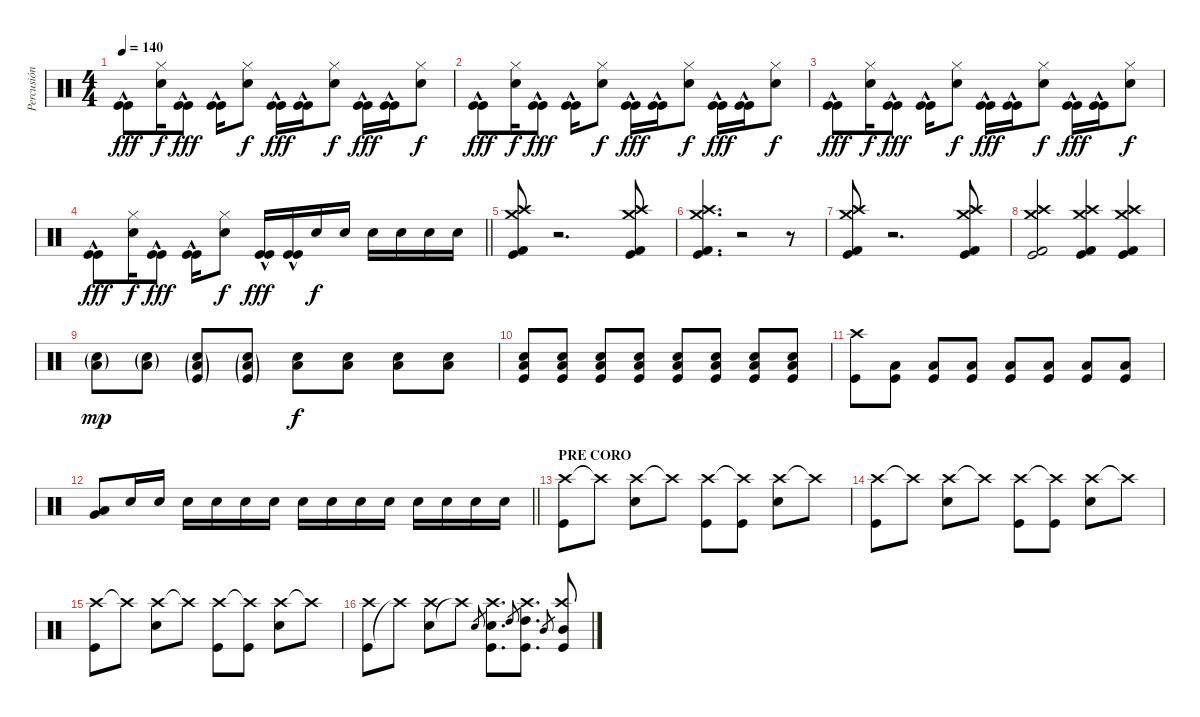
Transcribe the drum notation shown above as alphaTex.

\track ("Percusión" "Percusión") {instrument percussion}
\staff {score}
\articulation defaults
\ts (4 4)
\tempo 140
\clef neutral
\ks c
("Kick (hit)"{hac} "Kick (hit)").8{dy fff} ("Hi-Hat (closed)" "Snare (hit) 2").16{dy f} ("Kick (hit)"{hac} "Kick (hit)").8{dy fff} ("Kick (hit)" "Kick (hit)"{hac}).16 ("Hi-Hat (closed)" "Snare (hit) 2").8{dy f} ("Kick (hit)"{hac} "Kick (hit)").16{dy fff} ("Kick (hit)"{hac} "Kick (hit)").16 ("Hi-Hat (closed)" "Snare (hit) 2").8{dy f} ("Kick (hit)"{hac} "Kick (hit)").16{dy fff} ("Kick (hit)"{hac} "Kick (hit)").16 ("Hi-Hat (closed)" "Snare (hit) 2").8{dy f} |
("Kick (hit)"{hac} "Kick (hit)").8{dy fff} ("Hi-Hat (closed)" "Snare (hit) 2").16{dy f} ("Kick (hit)"{hac} "Kick (hit)").8{dy fff} ("Kick (hit)" "Kick (hit)"{hac}).16 ("Hi-Hat (closed)" "Snare (hit) 2").8{dy f} ("Kick (hit)"{hac} "Kick (hit)").16{dy fff} ("Kick (hit)"{hac} "Kick (hit)").16 ("Hi-Hat (closed)" "Snare (hit) 2").8{dy f} ("Kick (hit)"{hac} "Kick (hit)").16{dy fff} ("Kick (hit)"{hac} "Kick (hit)").16 ("Hi-Hat (closed)" "Snare (hit) 2").8{dy f} |
("Kick (hit)"{hac} "Kick (hit)").8{dy fff} ("Hi-Hat (closed)" "Snare (hit) 2").16{dy f} ("Kick (hit)"{hac} "Kick (hit)").8{dy fff} ("Kick (hit)" "Kick (hit)"{hac}).16 ("Hi-Hat (closed)" "Snare (hit) 2").8{dy f} ("Kick (hit)"{hac} "Kick (hit)").16{dy fff} ("Kick (hit)"{hac} "Kick (hit)").16 ("Hi-Hat (closed)" "Snare (hit) 2").8{dy f} ("Kick (hit)"{hac} "Kick (hit)").16{dy fff} ("Kick (hit)"{hac} "Kick (hit)").16 ("Hi-Hat (closed)" "Snare (hit) 2").8{dy f} |
\barLineRight lightlight
("Kick (hit)"{hac} "Kick (hit)").8{dy fff} ("Hi-Hat (closed)" "Snare (hit) 2").16{dy f} ("Kick (hit)"{hac} "Kick (hit)").8{dy fff} ("Kick (hit)" "Kick (hit)"{hac}).16 ("Hi-Hat (closed)" "Snare (hit) 2").8{dy f} ("Kick (hit)"{hac} "Kick (hit)").16{dy fff} ("Kick (hit)"{hac} "Kick (hit)").16 "Snare (hit) 2".16{dy f} "Snare (hit) 2".16 "Snare (hit) 2".16 "Snare (hit) 2".16 "Snare (hit) 2".16 "Snare (hit) 2".16 |
("Crash medium (hit)" "Crash high (hit)" "Kick (hit)" "Kick (hit) 2").8 r.2{d} ("Crash medium (hit)" "Crash high (hit)" "Kick (hit)" "Kick (hit) 2").8 |
("Crash medium (hit)" "Crash high (hit)" "Kick (hit)" "Kick (hit) 2").4{d} r.2 r.8 |
("Crash medium (hit)" "Crash high (hit)" "Kick (hit)" "Kick (hit) 2").8 r.2{d} ("Crash medium (hit)" "Crash high (hit)" "Kick (hit)" "Kick (hit) 2").8 |
("Crash medium (hit)" "Crash high (hit)" "Kick (hit)" "Kick (hit) 2").2 ("Crash medium (hit)" "Crash high (hit)" "Kick (hit)" "Kick (hit) 2").4 ("Crash medium (hit)" "Crash high (hit)" "Kick (hit)" "Kick (hit) 2").4 |
("Low Floor Tom (hit)"{g} "Snare (hit) 2"{g}).8{dy mp} ("Low Floor Tom (hit)"{g} "Snare (hit) 2"{g}).8 ("Low Floor Tom (hit)"{g} "Kick (hit)"{g} "Snare (hit) 2"{g}).8 ("Low Floor Tom (hit)"{g} "Kick (hit)"{g} "Snare (hit) 2"{g}).8 ("Low Floor Tom (hit)" "Snare (hit) 2").8{dy f} ("Snare (hit) 2" "Low Floor Tom (hit)").8 ("Low Floor Tom (hit)" "Snare (hit) 2").8 ("Low Floor Tom (hit)" "Snare (hit) 2").8 |
("Low Floor Tom (hit)" "Kick (hit)" "Snare (hit) 2").8 ("Snare (hit) 2" "Low Floor Tom (hit)" "Kick (hit)").8 ("Snare (hit) 2" "Low Floor Tom (hit)" "Kick (hit)").8 ("Snare (hit) 2" "Low Floor Tom (hit)" "Kick (hit)").8 ("Low Floor Tom (hit)" "Kick (hit)" "Snare (hit) 2").8 ("Snare (hit) 2" "Low Floor Tom (hit)" "Kick (hit)").8 ("Snare (hit) 2" "Low Floor Tom (hit)" "Kick (hit)").8 ("Snare (hit) 2" "Low Floor Tom (hit)" "Kick (hit)").8 |
("Crash high (hit)" "Kick (hit)").8 ("Kick (hit)" "Low Floor Tom (hit)").8 ("Kick (hit)" "Low Floor Tom (hit)").8 ("Kick (hit)" "Low Floor Tom (hit)").8 ("Low Floor Tom (hit)" "Kick (hit)").8 ("Kick (hit)" "Low Floor Tom (hit)").8 ("Kick (hit)" "Low Floor Tom (hit)").8 ("Kick (hit)" "Low Floor Tom (hit)").8 |
\barLineRight lightlight
("Low Floor Tom (hit)" "Very Low Tom (hit)").8 "Snare (hit) 2".16 "Snare (hit) 2".16 "Snare (hit) 2".16 "Snare (hit) 2".16 "Snare (hit) 2".16 "Snare (hit) 2".16 "Snare (hit) 2".16 "Snare (hit) 2".16 "Snare (hit) 2".16 "Snare (hit) 2".16 "Snare (hit) 2".16 "Snare (hit) 2".16 "Snare (hit) 2".16 "Snare (hit) 2".16 |
\section ("" "PRE CORO")
("Crash high (hit)" "Kick (hit)").8 "Crash high (hit)"{t}.8 ("Crash high (hit)" "Snare (hit) 2").8 "Crash high (hit)"{t}.8 ("Kick (hit)" "Crash high (hit)").8 ("Kick (hit)" "Crash high (hit)"{t}).8 ("Crash high (hit)" "Snare (hit) 2").8 "Crash high (hit)"{t}.8 |
("Crash high (hit)" "Kick (hit)").8 "Crash high (hit)"{t}.8 ("Crash high (hit)" "Snare (hit) 2").8 "Crash high (hit)"{t}.8 ("Kick (hit)" "Crash high (hit)").8 ("Kick (hit)" "Crash high (hit)"{t}).8 ("Crash high (hit)" "Snare (hit) 2").8 "Crash high (hit)"{t}.8 |
("Crash high (hit)" "Kick (hit)").8 "Crash high (hit)"{t}.8 ("Crash high (hit)" "Snare (hit) 2").8 "Crash high (hit)"{t}.8 ("Kick (hit)" "Crash high (hit)").8 ("Kick (hit)" "Crash high (hit)"{t}).8 ("Crash high (hit)" "Snare (hit) 2").8 "Crash high (hit)"{t}.8 |
("Kick (hit)" "Crash high (hit)").8 "Crash high (hit)"{t}.8 ("Snare (hit) 2" "Crash high (hit)").8 "Crash high (hit)"{t}.8 "Snare (hit) 2".8{gr} ("Snare (hit) 2" "Kick (hit)" "Crash high (hit)").8{d} "High Tom (hit)".8{gr} ("High Tom (hit)" "Kick (hit)" "Crash high (hit)").8{d} "Mid Tom (hit)".8{gr} ("Mid Tom (hit)" "Kick (hit)" "Crash high (hit)").8
